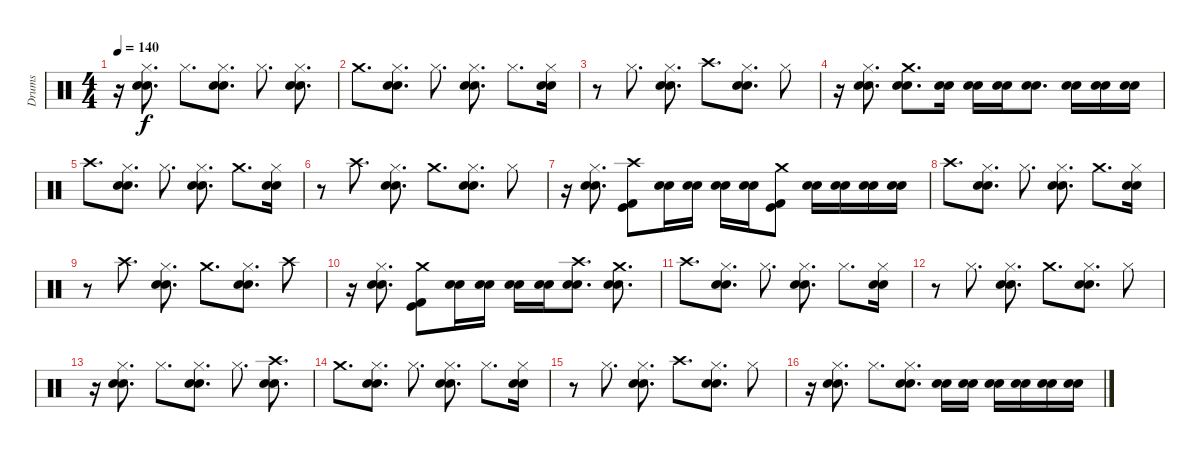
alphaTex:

\track ("Drums" "Drums") {instrument percussion}
\staff {score}
\articulation defaults
\ts (4 4)
\tempo 140
\clef neutral
\ks c
r.16{dy f} ("Hi-Hat (closed)" "Electric Snare (hit)" "Snare (hit) 2").8{d} "Hi-Hat (closed)".8{d} ("Hi-Hat (closed)" "Electric Snare (hit)" "Snare (hit) 2").8{d} "Hi-Hat (closed)".8{d} ("Hi-Hat (closed)" "Electric Snare (hit)" "Snare (hit) 2").8{d} |
"Crash medium (hit)".8{d} ("Hi-Hat (closed)" "Electric Snare (hit)" "Snare (hit) 2").8{d} "Hi-Hat (closed)".8{d} ("Hi-Hat (closed)" "Electric Snare (hit)" "Snare (hit) 2").8{d} "Hi-Hat (closed)".8{d} ("Hi-Hat (closed)" "Electric Snare (hit)" "Snare (hit) 2").16 |
r.8 "Hi-Hat (closed)".8{d} ("Hi-Hat (closed)" "Electric Snare (hit)" "Snare (hit) 2").8{d} "Crash high (hit)".8{d} ("Hi-Hat (closed)" "Electric Snare (hit)" "Snare (hit) 2").8{d} "Hi-Hat (closed)".8 |
r.16 ("Hi-Hat (closed)" "Electric Snare (hit)" "Snare (hit) 2").8{d} ("Crash medium (hit)" "Electric Snare (hit)" "Snare (hit) 2").8{d} ("Electric Snare (hit)" "Snare (hit) 2").16 ("Electric Snare (hit)" "Snare (hit) 2").16 ("Electric Snare (hit)" "Snare (hit) 2").16 ("Electric Snare (hit)" "Snare (hit) 2").8{d} ("Electric Snare (hit)" "Snare (hit) 2").16 ("Electric Snare (hit)" "Snare (hit) 2").16 ("Electric Snare (hit)" "Snare (hit) 2").16 |
"Crash high (hit)".8{d} ("Hi-Hat (closed)" "Electric Snare (hit)" "Snare (hit) 2").8{d} "Hi-Hat (closed)".8{d} ("Hi-Hat (closed)" "Electric Snare (hit)" "Snare (hit) 2").8{d} "Crash medium (hit)".8{d} ("Hi-Hat (closed)" "Electric Snare (hit)" "Snare (hit) 2").16 |
r.8 "Crash high (hit)".8{d} ("Hi-Hat (closed)" "Electric Snare (hit)" "Snare (hit) 2").8{d} "Crash medium (hit)".8{d} ("Hi-Hat (closed)" "Electric Snare (hit)" "Snare (hit) 2").8{d} "Hi-Hat (closed)".8 |
r.16 ("Hi-Hat (closed)" "Electric Snare (hit)" "Snare (hit) 2").8{d} ("Crash high (hit)" "Kick (hit) 2" "Kick (hit)").8 ("Electric Snare (hit)" "Snare (hit) 2").16 ("Electric Snare (hit)" "Snare (hit) 2").16 ("Electric Snare (hit)" "Snare (hit) 2").16 ("Electric Snare (hit)" "Snare (hit) 2").16 ("Crash medium (hit)" "Kick (hit) 2" "Kick (hit)").8 ("Electric Snare (hit)" "Snare (hit) 2").16 ("Electric Snare (hit)" "Snare (hit) 2").16 ("Electric Snare (hit)" "Snare (hit) 2").16 ("Electric Snare (hit)" "Snare (hit) 2").16 |
"Crash high (hit)".8{d} ("Hi-Hat (closed)" "Electric Snare (hit)" "Snare (hit) 2").8{d} "Hi-Hat (closed)".8{d} ("Hi-Hat (closed)" "Electric Snare (hit)" "Snare (hit) 2").8{d} "Crash medium (hit)".8{d} ("Hi-Hat (closed)" "Electric Snare (hit)" "Snare (hit) 2").16 |
r.8 "Crash high (hit)".8{d} ("Hi-Hat (closed)" "Electric Snare (hit)" "Snare (hit) 2").8{d} "Crash medium (hit)".8{d} ("Hi-Hat (closed)" "Electric Snare (hit)" "Snare (hit) 2").8{d} "Crash high (hit)".8 |
r.16 ("Hi-Hat (closed)" "Electric Snare (hit)" "Snare (hit) 2").8{d} ("Crash medium (hit)" "Kick (hit) 2" "Kick (hit)").8 ("Electric Snare (hit)" "Snare (hit) 2").16 ("Electric Snare (hit)" "Snare (hit) 2").16 ("Electric Snare (hit)" "Snare (hit) 2").16 ("Electric Snare (hit)" "Snare (hit) 2").16 ("Electric Snare (hit)" "Snare (hit) 2" "Crash high (hit)").8{d} ("Electric Snare (hit)" "Snare (hit) 2" "Crash medium (hit)").8{d} |
"Crash high (hit)".8{d} ("Hi-Hat (closed)" "Electric Snare (hit)" "Snare (hit) 2").8{d} "Hi-Hat (closed)".8{d} ("Hi-Hat (closed)" "Electric Snare (hit)" "Snare (hit) 2").8{d} "Hi-Hat (closed)".8{d} ("Hi-Hat (closed)" "Electric Snare (hit)" "Snare (hit) 2").16 |
r.8 "Hi-Hat (closed)".8{d} ("Hi-Hat (closed)" "Electric Snare (hit)" "Snare (hit) 2").8{d} "Crash medium (hit)".8{d} ("Hi-Hat (closed)" "Electric Snare (hit)" "Snare (hit) 2").8{d} "Hi-Hat (closed)".8 |
r.16 ("Hi-Hat (closed)" "Electric Snare (hit)" "Snare (hit) 2").8{d} "Hi-Hat (closed)".8{d} ("Hi-Hat (closed)" "Electric Snare (hit)" "Snare (hit) 2").8{d} "Hi-Hat (closed)".8{d} ("Crash high (hit)" "Electric Snare (hit)" "Snare (hit) 2").8{d} |
"Crash medium (hit)".8{d} ("Hi-Hat (closed)" "Electric Snare (hit)" "Snare (hit) 2").8{d} "Hi-Hat (closed)".8{d} ("Hi-Hat (closed)" "Electric Snare (hit)" "Snare (hit) 2").8{d} "Hi-Hat (closed)".8{d} ("Hi-Hat (closed)" "Electric Snare (hit)" "Snare (hit) 2").16 |
r.8 "Hi-Hat (closed)".8{d} ("Hi-Hat (closed)" "Electric Snare (hit)" "Snare (hit) 2").8{d} "Crash high (hit)".8{d} ("Hi-Hat (closed)" "Electric Snare (hit)" "Snare (hit) 2").8{d} "Hi-Hat (closed)".8 |
r.16 ("Hi-Hat (closed)" "Electric Snare (hit)" "Snare (hit) 2").8{d} "Hi-Hat (closed)".8{d} ("Hi-Hat (closed)" "Electric Snare (hit)" "Snare (hit) 2").8{d} ("Electric Snare (hit)" "Snare (hit) 2").16 ("Electric Snare (hit)" "Snare (hit) 2").16 ("Electric Snare (hit)" "Snare (hit) 2").16 ("Electric Snare (hit)" "Snare (hit) 2").16 ("Electric Snare (hit)" "Snare (hit) 2").16 ("Electric Snare (hit)" "Snare (hit) 2").16
